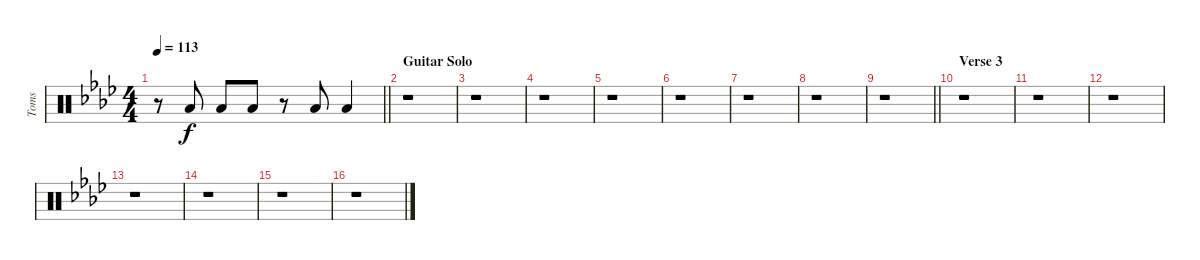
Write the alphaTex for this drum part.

\track ("Toms" "Toms") {instrument percussion}
\staff {score}
\articulation defaults
\ts (4 4)
\tempo 113
\clef neutral
\barLineRight lightlight
\ks fminor
r.8{dy ff} "Low Tom (hit)".8{dy f beam Up} "Low Tom (hit)".8{beam Up} "Low Tom (hit)".8{beam Up} r.8 "Low Tom (hit)".8{beam Up} "Low Tom (hit)".4{beam Up} |
\section ("" "Guitar Solo")
r.1 |
r.1 |
r.1 |
r.1 |
r.1 |
r.1 |
r.1 |
\barLineRight lightlight
r.1 |
\section ("" "Verse 3")
r.1 |
r.1 |
r.1 |
r.1 |
r.1 |
r.1 |
r.1
